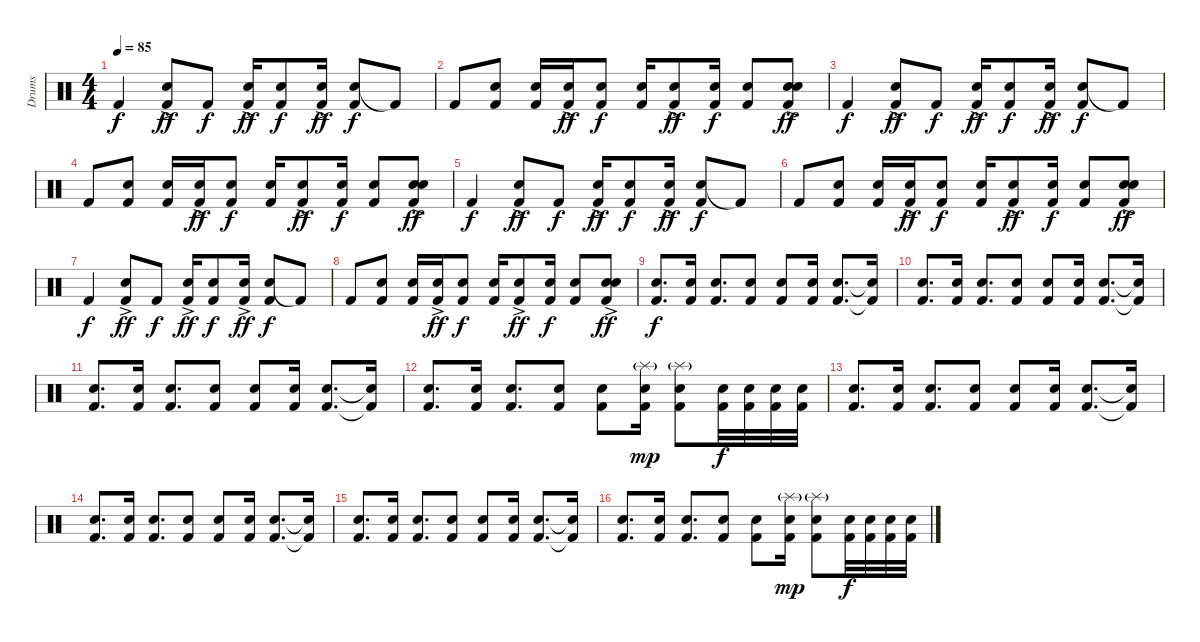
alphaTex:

\track ("Drums" "Drums") {instrument percussion}
\staff {score}
\articulation defaults
\ts (4 4)
\tempo 85
\clef neutral
\ks c "Kick (hit) 2".4{dy f}
("Snare (hit) 2"{ac} "Kick (hit) 2").8{dy ff} "Kick (hit) 2".8{dy f} ("Electric Snare (hit)"{ac} "Kick (hit) 2").16{dy ff} ("Snare (hit) 2" "Kick (hit) 2").8{dy f} ("Electric Snare (hit)"{ac} "Kick (hit) 2").16{dy ff} ("Snare (hit) 2" "Kick (hit) 2").8{dy f} "Kick (hit) 2"{t}.8 |
"Kick (hit) 2".8 ("Snare (hit) 2" "Kick (hit) 2").8 ("Snare (hit) 2" "Kick (hit) 2").16 ("Electric Snare (hit)"{ac} "Kick (hit) 2").16{dy ff} ("Snare (hit) 2" "Kick (hit) 2").8{dy f} ("Snare (hit) 2" "Kick (hit) 2").16 ("Electric Snare (hit)"{ac} "Kick (hit) 2").8{dy ff} ("Snare (hit) 2" "Kick (hit) 2").16{dy f} ("Snare (hit) 2" "Kick (hit) 2").8 ("Electric Snare (hit)"{ac} "Snare (hit) 2" "Kick (hit) 2").8{dy ff} |
"Kick (hit) 2".4{dy f} ("Snare (hit) 2"{ac} "Kick (hit) 2").8{dy ff} "Kick (hit) 2".8{dy f} ("Electric Snare (hit)"{ac} "Kick (hit) 2").16{dy ff} ("Snare (hit) 2" "Kick (hit) 2").8{dy f} ("Electric Snare (hit)"{ac} "Kick (hit) 2").16{dy ff} ("Snare (hit) 2" "Kick (hit) 2").8{dy f} "Kick (hit) 2"{t}.8 |
"Kick (hit) 2".8 ("Snare (hit) 2" "Kick (hit) 2").8 ("Snare (hit) 2" "Kick (hit) 2").16 ("Electric Snare (hit)"{ac} "Kick (hit) 2").16{dy ff} ("Snare (hit) 2" "Kick (hit) 2").8{dy f} ("Snare (hit) 2" "Kick (hit) 2").16 ("Electric Snare (hit)"{ac} "Kick (hit) 2").8{dy ff} ("Snare (hit) 2" "Kick (hit) 2").16{dy f} ("Snare (hit) 2" "Kick (hit) 2").8 ("Electric Snare (hit)"{ac} "Snare (hit) 2" "Kick (hit) 2").8{dy ff} |
"Kick (hit) 2".4{dy f} ("Snare (hit) 2"{ac} "Kick (hit) 2").8{dy ff} "Kick (hit) 2".8{dy f} ("Electric Snare (hit)"{ac} "Kick (hit) 2").16{dy ff} ("Snare (hit) 2" "Kick (hit) 2").8{dy f} ("Electric Snare (hit)"{ac} "Kick (hit) 2").16{dy ff} ("Snare (hit) 2" "Kick (hit) 2").8{dy f} "Kick (hit) 2"{t}.8 |
"Kick (hit) 2".8 ("Snare (hit) 2" "Kick (hit) 2").8 ("Snare (hit) 2" "Kick (hit) 2").16 ("Electric Snare (hit)"{ac} "Kick (hit) 2").16{dy ff} ("Snare (hit) 2" "Kick (hit) 2").8{dy f} ("Snare (hit) 2" "Kick (hit) 2").16 ("Electric Snare (hit)"{ac} "Kick (hit) 2").8{dy ff} ("Snare (hit) 2" "Kick (hit) 2").16{dy f} ("Snare (hit) 2" "Kick (hit) 2").8 ("Electric Snare (hit)"{ac} "Snare (hit) 2" "Kick (hit) 2").8{dy ff} |
"Kick (hit) 2".4{dy f} ("Snare (hit) 2"{ac} "Kick (hit) 2").8{dy ff} "Kick (hit) 2".8{dy f} ("Electric Snare (hit)"{ac} "Kick (hit) 2").16{dy ff} ("Snare (hit) 2" "Kick (hit) 2").8{dy f} ("Electric Snare (hit)"{ac} "Kick (hit) 2").16{dy ff} ("Snare (hit) 2" "Kick (hit) 2").8{dy f} "Kick (hit) 2"{t}.8 |
"Kick (hit) 2".8 ("Snare (hit) 2" "Kick (hit) 2").8 ("Snare (hit) 2" "Kick (hit) 2").16 ("Electric Snare (hit)"{ac} "Kick (hit) 2").16{dy ff} ("Snare (hit) 2" "Kick (hit) 2").8{dy f} ("Snare (hit) 2" "Kick (hit) 2").16 ("Electric Snare (hit)"{ac} "Kick (hit) 2").8{dy ff} ("Snare (hit) 2" "Kick (hit) 2").16{dy f} ("Snare (hit) 2" "Kick (hit) 2").8 ("Electric Snare (hit)"{ac} "Snare (hit) 2" "Kick (hit) 2").8{dy ff} |
("Snare (hit) 2" "Kick (hit) 2").8{d dy f} ("Snare (hit) 2" "Kick (hit) 2").16 ("Snare (hit) 2" "Kick (hit) 2").8{d} ("Snare (hit) 2" "Kick (hit) 2").8 ("Snare (hit) 2" "Kick (hit) 2").8 ("Snare (hit) 2" "Kick (hit) 2").16 ("Snare (hit) 2" "Kick (hit) 2").8{d} ("Snare (hit) 2"{t} "Kick (hit) 2"{t}).16 |
("Snare (hit) 2" "Kick (hit) 2").8{d} ("Snare (hit) 2" "Kick (hit) 2").16 ("Snare (hit) 2" "Kick (hit) 2").8{d} ("Snare (hit) 2" "Kick (hit) 2").8 ("Snare (hit) 2" "Kick (hit) 2").8 ("Snare (hit) 2" "Kick (hit) 2").16 ("Snare (hit) 2" "Kick (hit) 2").8{d} ("Snare (hit) 2"{t} "Kick (hit) 2"{t}).16 |
("Snare (hit) 2" "Kick (hit) 2").8{d} ("Snare (hit) 2" "Kick (hit) 2").16 ("Snare (hit) 2" "Kick (hit) 2").8{d} ("Snare (hit) 2" "Kick (hit) 2").8 ("Snare (hit) 2" "Kick (hit) 2").8 ("Snare (hit) 2" "Kick (hit) 2").16 ("Snare (hit) 2" "Kick (hit) 2").8{d} ("Snare (hit) 2"{t} "Kick (hit) 2"{t}).16 |
("Snare (hit) 2" "Kick (hit) 2").8{d} ("Snare (hit) 2" "Kick (hit) 2").16 ("Snare (hit) 2" "Kick (hit) 2").8{d} ("Snare (hit) 2" "Kick (hit) 2").8 ("Snare (hit) 2" "Kick (hit) 2").8 ("Splash (hit)"{g} "Snare (hit) 2" "Kick (hit) 2").16{dy mp} ("Splash (hit)"{g} "Snare (hit) 2" "Kick (hit) 2").8 ("Snare (hit) 2" "Kick (hit) 2").32{dy f} ("Snare (hit) 2" "Kick (hit) 2").32 ("Snare (hit) 2" "Kick (hit) 2").32 ("Snare (hit) 2" "Kick (hit) 2").32 |
("Snare (hit) 2" "Kick (hit) 2").8{d} ("Snare (hit) 2" "Kick (hit) 2").16 ("Snare (hit) 2" "Kick (hit) 2").8{d} ("Snare (hit) 2" "Kick (hit) 2").8 ("Snare (hit) 2" "Kick (hit) 2").8 ("Snare (hit) 2" "Kick (hit) 2").16 ("Snare (hit) 2" "Kick (hit) 2").8{d} ("Snare (hit) 2"{t} "Kick (hit) 2"{t}).16 |
("Snare (hit) 2" "Kick (hit) 2").8{d} ("Snare (hit) 2" "Kick (hit) 2").16 ("Snare (hit) 2" "Kick (hit) 2").8{d} ("Snare (hit) 2" "Kick (hit) 2").8 ("Snare (hit) 2" "Kick (hit) 2").8 ("Snare (hit) 2" "Kick (hit) 2").16 ("Snare (hit) 2" "Kick (hit) 2").8{d} ("Snare (hit) 2"{t} "Kick (hit) 2"{t}).16 |
("Snare (hit) 2" "Kick (hit) 2").8{d} ("Snare (hit) 2" "Kick (hit) 2").16 ("Snare (hit) 2" "Kick (hit) 2").8{d} ("Snare (hit) 2" "Kick (hit) 2").8 ("Snare (hit) 2" "Kick (hit) 2").8 ("Snare (hit) 2" "Kick (hit) 2").16 ("Snare (hit) 2" "Kick (hit) 2").8{d} ("Snare (hit) 2"{t} "Kick (hit) 2"{t}).16 |
("Snare (hit) 2" "Kick (hit) 2").8{d} ("Snare (hit) 2" "Kick (hit) 2").16 ("Snare (hit) 2" "Kick (hit) 2").8{d} ("Snare (hit) 2" "Kick (hit) 2").8 ("Snare (hit) 2" "Kick (hit) 2").8 ("Splash (hit)"{g} "Snare (hit) 2" "Kick (hit) 2").16{dy mp} ("Splash (hit)"{g} "Snare (hit) 2" "Kick (hit) 2").8 ("Snare (hit) 2" "Kick (hit) 2").32{dy f} ("Snare (hit) 2" "Kick (hit) 2").32 ("Snare (hit) 2" "Kick (hit) 2").32 ("Snare (hit) 2" "Kick (hit) 2").32
